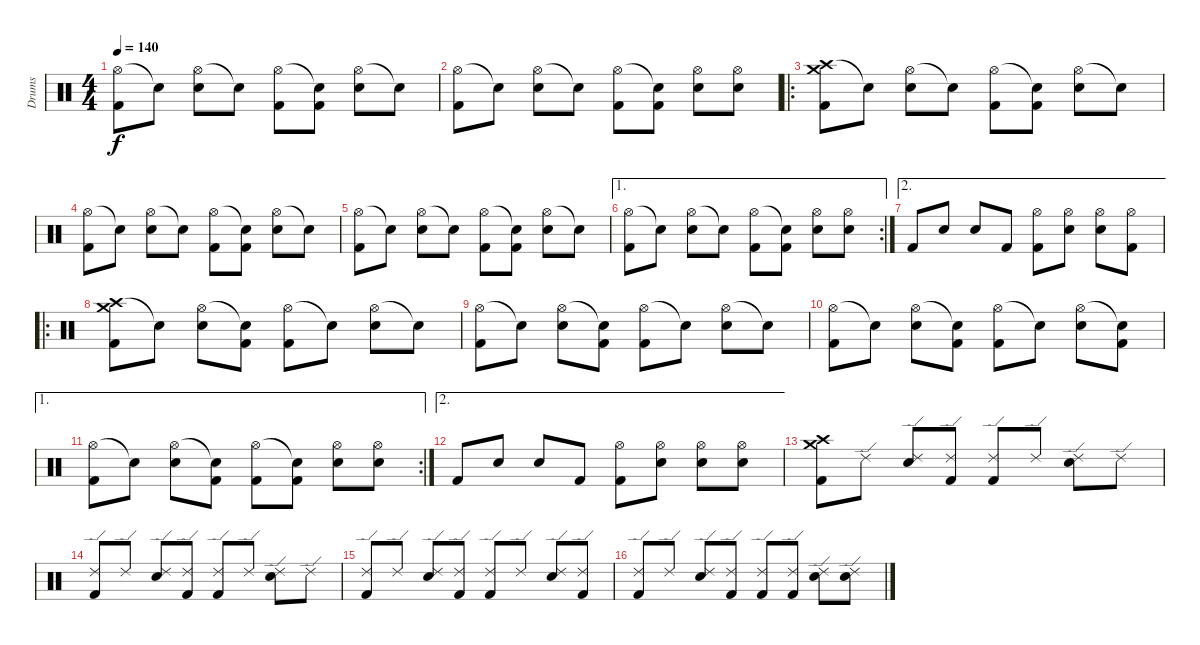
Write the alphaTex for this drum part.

\track ("Drums" "Drums") {instrument percussion}
\staff {score}
\articulation defaults
\ts (4 4)
\tempo 140
\clef neutral
\ks c
("Hi-Hat (open)" "Kick (hit) 2").8{dy f} "Snare (hit)"{t}.8 ("Hi-Hat (open)" "Snare (hit) 2").8 "Snare (hit)"{t}.8 ("Hi-Hat (open)" "Kick (hit) 2").8 ("Snare (hit)"{t} "Kick (hit) 2").8 ("Hi-Hat (open)" "Snare (hit) 2").8 "Snare (hit)"{t}.8 |
("Hi-Hat (open)" "Kick (hit) 2").8 "Snare (hit)"{t}.8 ("Hi-Hat (open)" "Snare (hit) 2").8 "Snare (hit)"{t}.8 ("Hi-Hat (open)" "Kick (hit) 2").8 ("Snare (hit)"{t} "Kick (hit) 2").8 ("Hi-Hat (open)" "Snare (hit) 2").8 ("Hi-Hat (open)" "Snare (hit) 2").8 |
\ro
("Crash high (hit)" "Crash medium (hit)" "Kick (hit) 2").8 "Snare (hit)"{t}.8 ("Hi-Hat (open)" "Snare (hit) 2").8 "Snare (hit)"{t}.8 ("Hi-Hat (open)" "Kick (hit) 2").8 ("Snare (hit)"{t} "Kick (hit) 2").8 ("Hi-Hat (open)" "Snare (hit) 2").8 "Snare (hit)"{t}.8 |
("Hi-Hat (open)" "Kick (hit) 2").8 "Snare (hit)"{t}.8 ("Hi-Hat (open)" "Snare (hit) 2").8 "Snare (hit)"{t}.8 ("Hi-Hat (open)" "Kick (hit) 2").8 ("Snare (hit)"{t} "Kick (hit) 2").8 ("Hi-Hat (open)" "Snare (hit) 2").8 "Snare (hit)"{t}.8 |
("Hi-Hat (open)" "Kick (hit) 2").8 "Snare (hit)"{t}.8 ("Hi-Hat (open)" "Snare (hit) 2").8 "Snare (hit)"{t}.8 ("Hi-Hat (open)" "Kick (hit) 2").8 ("Snare (hit)"{t} "Kick (hit) 2").8 ("Hi-Hat (open)" "Snare (hit) 2").8 "Snare (hit)"{t}.8 |
\ae 1
\rc 2
("Hi-Hat (open)" "Kick (hit) 2").8 "Snare (hit)"{t}.8 ("Hi-Hat (open)" "Snare (hit) 2").8 "Snare (hit)"{t}.8 ("Hi-Hat (open)" "Kick (hit) 2").8 ("Snare (hit)"{t} "Kick (hit) 2").8 ("Hi-Hat (open)" "Snare (hit) 2").8 ("Hi-Hat (open)" "Snare (hit) 2").8 |
\ae 2 "Kick (hit) 2".8 "Snare (hit) 2".8 "Snare (hit) 2".8 "Kick (hit) 2".8
("Hi-Hat (open)" "Kick (hit) 2").8 ("Hi-Hat (open)" "Snare (hit) 2").8 ("Hi-Hat (open)" "Snare (hit) 2").8 ("Hi-Hat (open)" "Kick (hit) 2").8 |
\ro
("Crash high (hit)" "Crash medium (hit)" "Kick (hit) 2").8 "Snare (hit)"{t}.8 ("Hi-Hat (open)" "Snare (hit) 2").8 ("Snare (hit)"{t} "Kick (hit) 2").8 ("Hi-Hat (open)" "Kick (hit) 2").8 "Snare (hit)"{t}.8 ("Hi-Hat (open)" "Snare (hit) 2").8 "Snare (hit)"{t}.8 |
("Hi-Hat (open)" "Kick (hit) 2").8 "Snare (hit)"{t}.8 ("Hi-Hat (open)" "Snare (hit) 2").8 ("Snare (hit)"{t} "Kick (hit) 2").8 ("Hi-Hat (open)" "Kick (hit) 2").8 "Snare (hit)"{t}.8 ("Hi-Hat (open)" "Snare (hit) 2").8 "Snare (hit)"{t}.8 |
("Hi-Hat (open)" "Kick (hit) 2").8 "Snare (hit)"{t}.8 ("Hi-Hat (open)" "Snare (hit) 2").8 ("Snare (hit)"{t} "Kick (hit) 2").8 ("Hi-Hat (open)" "Kick (hit) 2").8 "Snare (hit)"{t}.8 ("Hi-Hat (open)" "Snare (hit) 2").8 ("Snare (hit)"{t} "Kick (hit) 2").8 |
\ae 1
\rc 2
("Hi-Hat (open)" "Kick (hit) 2").8 "Snare (hit)"{t}.8 ("Hi-Hat (open)" "Snare (hit) 2").8 ("Snare (hit)"{t} "Kick (hit) 2").8 ("Hi-Hat (open)" "Kick (hit) 2").8 ("Snare (hit)"{t} "Kick (hit) 2").8 ("Hi-Hat (open)" "Snare (hit) 2").8 ("Hi-Hat (open)" "Snare (hit) 2").8 |
\ae 2 "Kick (hit) 2".8 "Snare (hit) 2".8 "Snare (hit) 2".8 "Kick (hit) 2".8
("Hi-Hat (open)" "Kick (hit) 2").8 ("Hi-Hat (open)" "Snare (hit) 2").8 ("Hi-Hat (open)" "Snare (hit) 2").8 ("Hi-Hat (open)" "Snare (hit) 2").8 |
("Crash high (hit)" "Crash medium (hit)" "Kick (hit) 2").8 "Ride (edge) 2".8 ("Ride (edge) 2" "Snare (hit) 2").8 ("Ride (edge) 2" "Kick (hit) 2").8 ("Ride (edge) 2" "Kick (hit) 2").8 "Ride (edge) 2".8 ("Ride (edge) 2" "Snare (hit) 2").8 "Ride (edge) 2".8 |
("Ride (edge) 2" "Kick (hit) 2").8 "Ride (edge) 2".8 ("Ride (edge) 2" "Snare (hit) 2").8 ("Ride (edge) 2" "Kick (hit) 2").8 ("Ride (edge) 2" "Kick (hit) 2").8 "Ride (edge) 2".8 ("Ride (edge) 2" "Snare (hit) 2").8 "Ride (edge) 2".8 |
("Ride (edge) 2" "Kick (hit) 2").8 "Ride (edge) 2".8 ("Ride (edge) 2" "Snare (hit) 2").8 ("Ride (edge) 2" "Kick (hit) 2").8 ("Ride (edge) 2" "Kick (hit) 2").8 "Ride (edge) 2".8 ("Ride (edge) 2" "Snare (hit) 2").8 ("Ride (edge) 2" "Kick (hit) 2").8 |
("Ride (edge) 2" "Kick (hit) 2").8 "Ride (edge) 2".8 ("Ride (edge) 2" "Snare (hit) 2").8 ("Ride (edge) 2" "Kick (hit) 2").8 ("Ride (edge) 2" "Kick (hit) 2").8 ("Ride (edge) 2" "Kick (hit) 2").8 ("Ride (edge) 2" "Snare (hit) 2").8 ("Ride (edge) 2" "Snare (hit) 2").8
